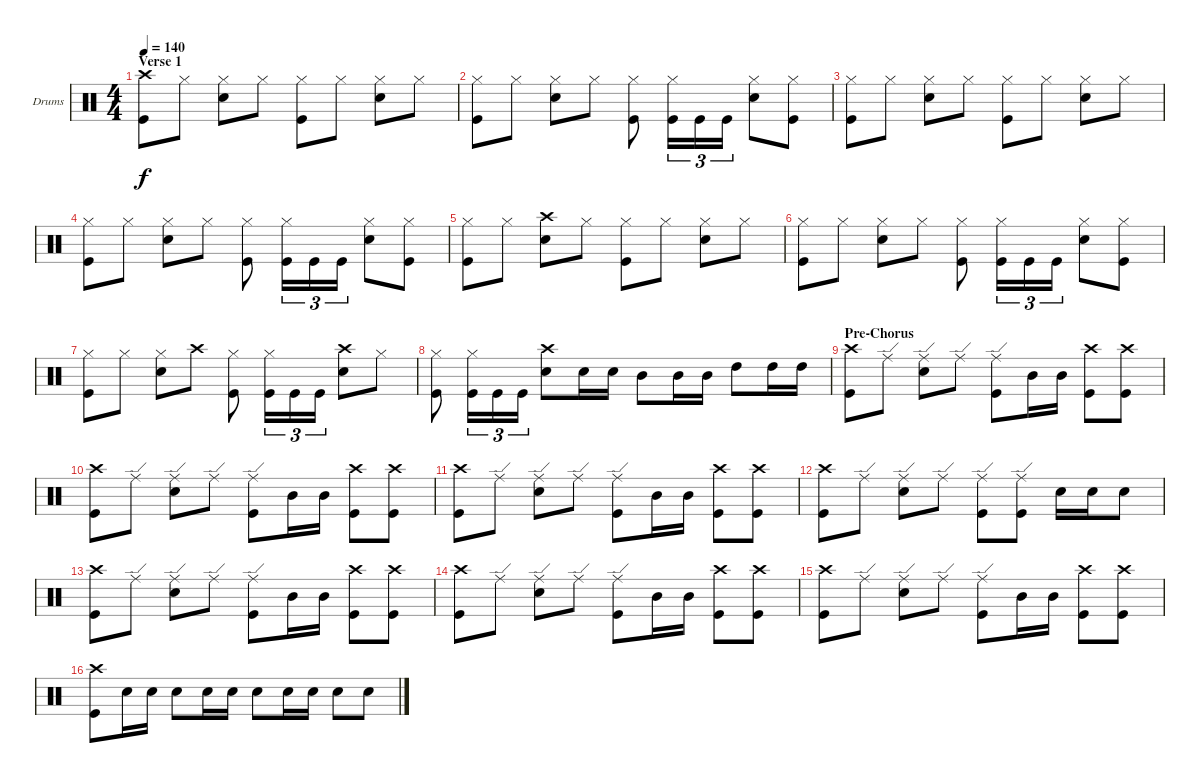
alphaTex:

\defaultSystemsLayout 4
\bracketExtendMode groupsimilarinstruments
\firstSystemTrackNameOrientation horizontal
\otherSystemsTrackNameOrientation horizontal
\track ("Drums" "Drums") {instrument percussion}
\staff {score}
\articulation defaults
\ts (4 4)
\section ("" "Verse 1")
\tempo 140
\clef neutral
\ks c
("Kick (hit)" "Crash high (hit)").8{dy f} "Hi-Hat (closed)".8 ("Snare (hit) 2" "Hi-Hat (closed)").8 "Hi-Hat (closed)".8 ("Kick (hit)" "Hi-Hat (closed)").8 "Hi-Hat (closed)".8 ("Snare (hit) 2" "Hi-Hat (closed)").8 "Hi-Hat (closed)".8 |
("Kick (hit)" "Hi-Hat (closed)").8 "Hi-Hat (closed)".8 ("Hi-Hat (closed)" "Snare (hit) 2").8 "Hi-Hat (closed)".8 ("Kick (hit)" "Hi-Hat (closed)").8 ("Kick (hit)" "Hi-Hat (closed)").16{tu (3 2)} "Kick (hit)".16{tu (3 2)} "Kick (hit)".16{tu (3 2)} ("Snare (hit) 2" "Hi-Hat (closed)").8 ("Kick (hit)" "Hi-Hat (closed)").8 |
("Hi-Hat (closed)" "Kick (hit)").8 "Hi-Hat (closed)".8 ("Hi-Hat (closed)" "Snare (hit) 2").8 "Hi-Hat (closed)".8 ("Hi-Hat (closed)" "Kick (hit)").8 "Hi-Hat (closed)".8 ("Snare (hit) 2" "Hi-Hat (closed)").8 "Hi-Hat (closed)".8 |
("Kick (hit)" "Hi-Hat (closed)").8 "Hi-Hat (closed)".8 ("Hi-Hat (closed)" "Snare (hit) 2").8 "Hi-Hat (closed)".8 ("Kick (hit)" "Hi-Hat (closed)").8 ("Kick (hit)" "Hi-Hat (closed)").16{tu (3 2)} "Kick (hit)".16{tu (3 2)} "Kick (hit)".16{tu (3 2)} ("Snare (hit) 2" "Hi-Hat (closed)").8 ("Kick (hit)" "Hi-Hat (closed)").8 |
("Hi-Hat (closed)" "Kick (hit)").8 "Hi-Hat (closed)".8 ("Crash high (hit)" "Snare (hit) 2").8 "Hi-Hat (closed)".8 ("Hi-Hat (closed)" "Kick (hit)").8 "Hi-Hat (closed)".8 ("Snare (hit) 2" "Hi-Hat (closed)").8 "Hi-Hat (closed)".8 |
("Kick (hit)" "Hi-Hat (closed)").8 "Hi-Hat (closed)".8 ("Hi-Hat (closed)" "Snare (hit) 2").8 "Hi-Hat (closed)".8 ("Kick (hit)" "Hi-Hat (closed)").8 ("Kick (hit)" "Hi-Hat (closed)").16{tu (3 2)} "Kick (hit)".16{tu (3 2)} "Kick (hit)".16{tu (3 2)} ("Snare (hit) 2" "Hi-Hat (closed)").8 ("Kick (hit)" "Hi-Hat (closed)").8 |
("Kick (hit)" "Hi-Hat (closed)").8 "Hi-Hat (closed)".8 ("Hi-Hat (closed)" "Snare (hit) 2").8 "Crash high (hit)".8 ("Kick (hit)" "Hi-Hat (closed)").8 ("Kick (hit)" "Hi-Hat (closed)").16{tu (3 2)} "Kick (hit)".16{tu (3 2)} "Kick (hit)".16{tu (3 2)} ("Crash high (hit)" "Snare (hit) 2").8 "Hi-Hat (closed)".8 |
("Hi-Hat (closed)" "Kick (hit)").8 ("Hi-Hat (closed)" "Kick (hit)").16{tu (3 2)} "Kick (hit)".16{tu (3 2)} "Kick (hit)".16{tu (3 2)} ("Snare (hit) 2" "Crash high (hit)").8 "Snare (hit) 2".16 "Snare (hit) 2".16 "Mid Tom (hit)".8 "Mid Tom (hit)".16 "Mid Tom (hit)".16 "High Tom (hit)".8 "High Tom (hit)".16 "High Tom (hit)".16 |
\section ("" "Pre-Chorus")
("Crash high (hit)" "Kick (hit)").8 "Ride (edge)".8 ("Snare (hit) 2" "Ride (edge)").8 "Ride (edge)".8 ("Ride (edge)" "Kick (hit)").8 "Mid Tom (hit)".16 "Mid Tom (hit)".16 ("Crash high (hit)" "Kick (hit)").8 ("Crash high (hit)" "Kick (hit)").8 |
("Crash high (hit)" "Kick (hit)").8 "Ride (edge)".8 ("Snare (hit) 2" "Ride (edge)").8 "Ride (edge)".8 ("Ride (edge)" "Kick (hit)").8 "Mid Tom (hit)".16 "Mid Tom (hit)".16 ("Crash high (hit)" "Kick (hit)").8 ("Crash high (hit)" "Kick (hit)").8 |
("Crash high (hit)" "Kick (hit)").8 "Ride (edge)".8 ("Snare (hit) 2" "Ride (edge)").8 "Ride (edge)".8 ("Ride (edge)" "Kick (hit)").8 "Mid Tom (hit)".16 "Mid Tom (hit)".16 ("Crash high (hit)" "Kick (hit)").8 ("Crash high (hit)" "Kick (hit)").8 |
("Crash high (hit)" "Kick (hit)").8 "Ride (edge)".8 ("Snare (hit) 2" "Ride (edge)").8 "Ride (edge)".8 ("Kick (hit)" "Ride (edge)").8 ("Ride (edge)" "Kick (hit)").8 "Snare (hit) 2".16 "Snare (hit) 2".16 "Snare (hit) 2".8 |
("Crash high (hit)" "Kick (hit)").8 "Ride (edge)".8 ("Snare (hit) 2" "Ride (edge)").8 "Ride (edge)".8 ("Ride (edge)" "Kick (hit)").8 "Mid Tom (hit)".16 "Mid Tom (hit)".16 ("Crash high (hit)" "Kick (hit)").8 ("Crash high (hit)" "Kick (hit)").8 |
("Crash high (hit)" "Kick (hit)").8 "Ride (edge)".8 ("Snare (hit) 2" "Ride (edge)").8 "Ride (edge)".8 ("Ride (edge)" "Kick (hit)").8 "Mid Tom (hit)".16 "Mid Tom (hit)".16 ("Crash high (hit)" "Kick (hit)").8 ("Crash high (hit)" "Kick (hit)").8 |
("Crash high (hit)" "Kick (hit)").8 "Ride (edge)".8 ("Snare (hit) 2" "Ride (edge)").8 "Ride (edge)".8 ("Ride (edge)" "Kick (hit)").8 "Mid Tom (hit)".16 "Mid Tom (hit)".16 ("Crash high (hit)" "Kick (hit)").8 ("Crash high (hit)" "Kick (hit)").8 |
("Kick (hit)" "Crash high (hit)").8 "Snare (hit) 2".16 "Snare (hit) 2".16 "Snare (hit) 2".8 "Snare (hit) 2".16 "Snare (hit) 2".16 "Snare (hit) 2".8 "Snare (hit) 2".16 "Snare (hit) 2".16 "Snare (hit) 2".8 "Snare (hit) 2".8
